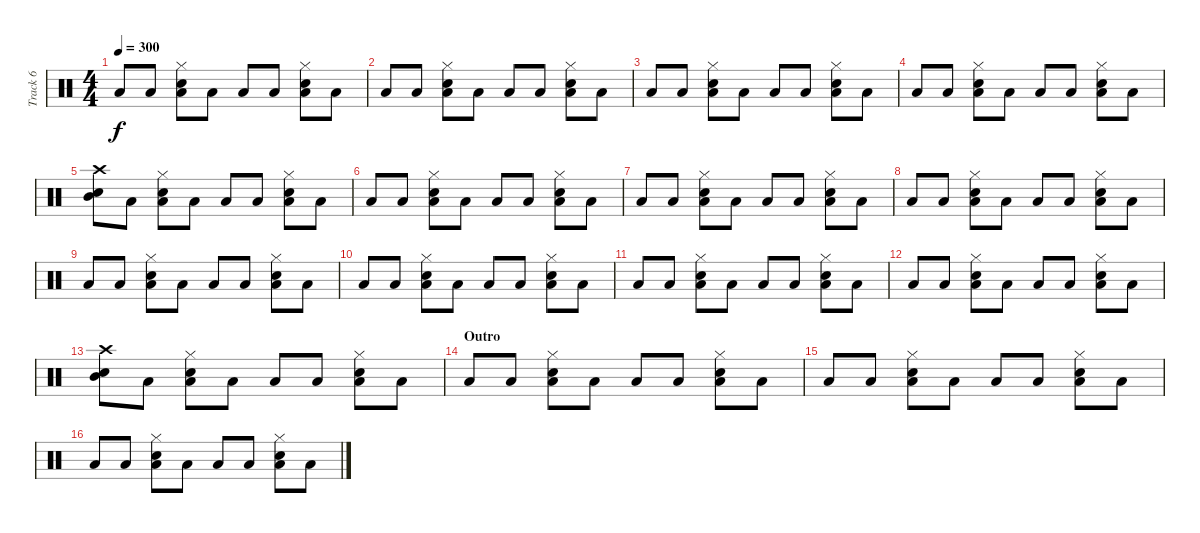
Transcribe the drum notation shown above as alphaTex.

\track ("Track 6" "Track 6") {instrument percussion}
\staff {score}
\articulation defaults
\ts (4 4)
\tempo 300
\clef neutral
\ks c "Low Floor Tom (hit)".8{dy f} "Low Floor Tom (hit)".8
("Electric Snare (hit)" "Low Tom (hit)" "Hi-Hat (closed)").8 "Low Floor Tom (hit)".8 "Low Floor Tom (hit)".8 "Low Floor Tom (hit)".8 ("Electric Snare (hit)" "Low Tom (hit)" "Hi-Hat (closed)").8 "Low Floor Tom (hit)".8 |
"Low Floor Tom (hit)".8 "Low Floor Tom (hit)".8 ("Electric Snare (hit)" "Low Tom (hit)" "Hi-Hat (closed)").8 "Low Floor Tom (hit)".8 "Low Floor Tom (hit)".8 "Low Floor Tom (hit)".8 ("Electric Snare (hit)" "Low Tom (hit)" "Hi-Hat (closed)").8 "Low Floor Tom (hit)".8 |
"Low Floor Tom (hit)".8 "Low Floor Tom (hit)".8 ("Electric Snare (hit)" "Low Tom (hit)" "Hi-Hat (closed)").8 "Low Floor Tom (hit)".8 "Low Floor Tom (hit)".8 "Low Floor Tom (hit)".8 ("Electric Snare (hit)" "Low Tom (hit)" "Hi-Hat (closed)").8 "Low Floor Tom (hit)".8 |
"Low Floor Tom (hit)".8 "Low Floor Tom (hit)".8 ("Electric Snare (hit)" "Low Tom (hit)" "Hi-Hat (closed)").8 "Low Floor Tom (hit)".8 "Low Floor Tom (hit)".8 "Low Floor Tom (hit)".8 ("Electric Snare (hit)" "Low Tom (hit)" "Hi-Hat (closed)").8 "Low Floor Tom (hit)".8 |
("Snare (hit) 2" "Mid Tom (hit)" "Crash high (hit)").8 "Low Floor Tom (hit)".8 ("Electric Snare (hit)" "Low Tom (hit)" "Hi-Hat (closed)").8 "Low Floor Tom (hit)".8 "Low Floor Tom (hit)".8 "Low Floor Tom (hit)".8 ("Electric Snare (hit)" "Low Tom (hit)" "Hi-Hat (closed)").8 "Low Floor Tom (hit)".8 |
"Low Floor Tom (hit)".8 "Low Floor Tom (hit)".8 ("Electric Snare (hit)" "Low Tom (hit)" "Hi-Hat (closed)").8 "Low Floor Tom (hit)".8 "Low Floor Tom (hit)".8 "Low Floor Tom (hit)".8 ("Electric Snare (hit)" "Low Tom (hit)" "Hi-Hat (closed)").8 "Low Floor Tom (hit)".8 |
"Low Floor Tom (hit)".8 "Low Floor Tom (hit)".8 ("Electric Snare (hit)" "Low Tom (hit)" "Hi-Hat (closed)").8 "Low Floor Tom (hit)".8 "Low Floor Tom (hit)".8 "Low Floor Tom (hit)".8 ("Electric Snare (hit)" "Low Tom (hit)" "Hi-Hat (closed)").8 "Low Floor Tom (hit)".8 |
"Low Floor Tom (hit)".8 "Low Floor Tom (hit)".8 ("Electric Snare (hit)" "Low Tom (hit)" "Hi-Hat (closed)").8 "Low Floor Tom (hit)".8 "Low Floor Tom (hit)".8 "Low Floor Tom (hit)".8 ("Electric Snare (hit)" "Low Tom (hit)" "Hi-Hat (closed)").8 "Low Floor Tom (hit)".8 |
"Low Floor Tom (hit)".8 "Low Floor Tom (hit)".8 ("Electric Snare (hit)" "Low Tom (hit)" "Hi-Hat (closed)").8 "Low Floor Tom (hit)".8 "Low Floor Tom (hit)".8 "Low Floor Tom (hit)".8 ("Electric Snare (hit)" "Low Tom (hit)" "Hi-Hat (closed)").8 "Low Floor Tom (hit)".8 |
"Low Floor Tom (hit)".8 "Low Floor Tom (hit)".8 ("Electric Snare (hit)" "Low Tom (hit)" "Hi-Hat (closed)").8 "Low Floor Tom (hit)".8 "Low Floor Tom (hit)".8 "Low Floor Tom (hit)".8 ("Electric Snare (hit)" "Low Tom (hit)" "Hi-Hat (closed)").8 "Low Floor Tom (hit)".8 |
"Low Floor Tom (hit)".8 "Low Floor Tom (hit)".8 ("Electric Snare (hit)" "Low Tom (hit)" "Hi-Hat (closed)").8 "Low Floor Tom (hit)".8 "Low Floor Tom (hit)".8 "Low Floor Tom (hit)".8 ("Electric Snare (hit)" "Low Tom (hit)" "Hi-Hat (closed)").8 "Low Floor Tom (hit)".8 |
"Low Floor Tom (hit)".8 "Low Floor Tom (hit)".8 ("Electric Snare (hit)" "Low Tom (hit)" "Hi-Hat (closed)").8 "Low Floor Tom (hit)".8 "Low Floor Tom (hit)".8 "Low Floor Tom (hit)".8 ("Electric Snare (hit)" "Low Tom (hit)" "Hi-Hat (closed)").8 "Low Floor Tom (hit)".8 |
("Snare (hit) 2" "Mid Tom (hit)" "Crash high (hit)").8 "Low Floor Tom (hit)".8 ("Electric Snare (hit)" "Low Tom (hit)" "Hi-Hat (closed)").8 "Low Floor Tom (hit)".8 "Low Floor Tom (hit)".8 "Low Floor Tom (hit)".8 ("Electric Snare (hit)" "Low Tom (hit)" "Hi-Hat (closed)").8 "Low Floor Tom (hit)".8 |
\section ("" "Outro")
"Low Floor Tom (hit)".8 "Low Floor Tom (hit)".8 ("Electric Snare (hit)" "Low Tom (hit)" "Hi-Hat (closed)").8 "Low Floor Tom (hit)".8 "Low Floor Tom (hit)".8 "Low Floor Tom (hit)".8 ("Electric Snare (hit)" "Low Tom (hit)" "Hi-Hat (closed)").8 "Low Floor Tom (hit)".8 |
"Low Floor Tom (hit)".8 "Low Floor Tom (hit)".8 ("Electric Snare (hit)" "Low Tom (hit)" "Hi-Hat (closed)").8 "Low Floor Tom (hit)".8 "Low Floor Tom (hit)".8 "Low Floor Tom (hit)".8 ("Electric Snare (hit)" "Low Tom (hit)" "Hi-Hat (closed)").8 "Low Floor Tom (hit)".8 |
"Low Floor Tom (hit)".8 "Low Floor Tom (hit)".8 ("Electric Snare (hit)" "Low Tom (hit)" "Hi-Hat (closed)").8 "Low Floor Tom (hit)".8 "Low Floor Tom (hit)".8 "Low Floor Tom (hit)".8 ("Electric Snare (hit)" "Low Tom (hit)" "Hi-Hat (closed)").8 "Low Floor Tom (hit)".8
